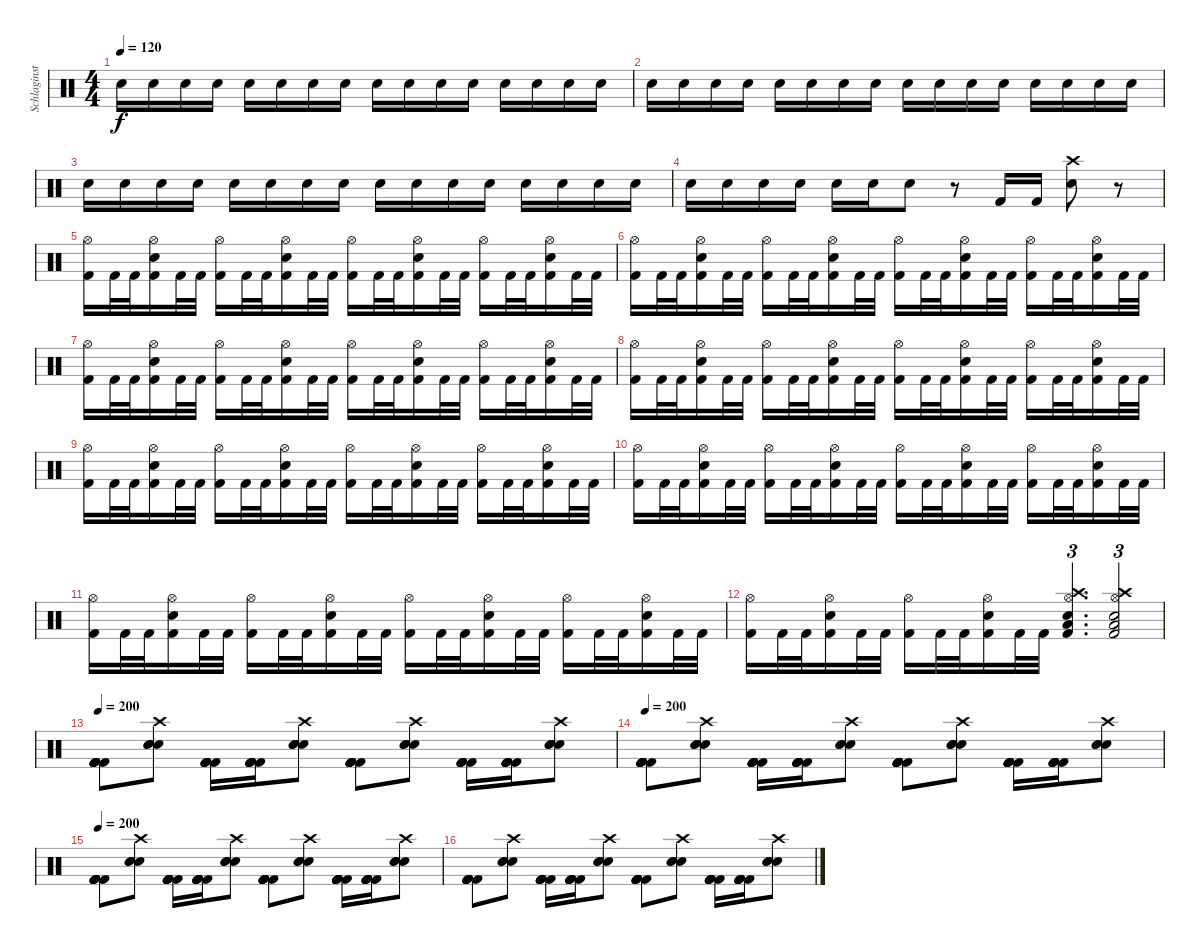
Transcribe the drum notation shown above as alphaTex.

\track ("Schlaginstrumente - Auswahl" "Schlaginst") {instrument percussion}
\staff {score}
\articulation defaults
\ts (4 4)
\tempo 120
\clef neutral
\ks c "Electric Snare (hit)".16{dy f} "Electric Snare (hit)".16 "Electric Snare (hit)".16 "Electric Snare (hit)".16 "Electric Snare (hit)".16 "Electric Snare (hit)".16 "Electric Snare (hit)".16 "Electric Snare (hit)".16 "Electric Snare (hit)".16 "Electric Snare (hit)".16 "Electric Snare (hit)".16 "Electric Snare (hit)".16 "Electric Snare (hit)".16 "Electric Snare (hit)".16 "Electric Snare (hit)".16 "Electric Snare (hit)".16
|
"Electric Snare (hit)".16 "Electric Snare (hit)".16 "Electric Snare (hit)".16 "Electric Snare (hit)".16 "Electric Snare (hit)".16 "Electric Snare (hit)".16 "Electric Snare (hit)".16 "Electric Snare (hit)".16 "Electric Snare (hit)".16 "Electric Snare (hit)".16 "Electric Snare (hit)".16 "Electric Snare (hit)".16 "Electric Snare (hit)".16 "Electric Snare (hit)".16 "Electric Snare (hit)".16 "Electric Snare (hit)".16 |
"Electric Snare (hit)".16 "Electric Snare (hit)".16 "Electric Snare (hit)".16 "Electric Snare (hit)".16 "Electric Snare (hit)".16 "Electric Snare (hit)".16 "Electric Snare (hit)".16 "Electric Snare (hit)".16 "Electric Snare (hit)".16 "Electric Snare (hit)".16 "Electric Snare (hit)".16 "Electric Snare (hit)".16 "Electric Snare (hit)".16 "Electric Snare (hit)".16 "Electric Snare (hit)".16 "Electric Snare (hit)".16 |
"Electric Snare (hit)".16 "Electric Snare (hit)".16 "Electric Snare (hit)".16 "Electric Snare (hit)".16 "Electric Snare (hit)".16 "Electric Snare (hit)".16 "Electric Snare (hit)".8 r.8 "Kick (hit) 2".16 "Kick (hit) 2".16 ("Crash high (hit)" "Electric Snare (hit)").8 r.8 |
("Hi-Hat (open)" "Kick (hit) 2").16 "Kick (hit) 2".32 "Kick (hit) 2".32 ("Hi-Hat (open)" "Electric Snare (hit)" "Kick (hit) 2").16 "Kick (hit) 2".32 "Kick (hit) 2".32 ("Hi-Hat (open)" "Kick (hit) 2").16 "Kick (hit) 2".32 "Kick (hit) 2".32 ("Hi-Hat (open)" "Electric Snare (hit)" "Kick (hit) 2").16 "Kick (hit) 2".32 "Kick (hit) 2".32 ("Hi-Hat (open)" "Kick (hit) 2").16 "Kick (hit) 2".32 "Kick (hit) 2".32 ("Hi-Hat (open)" "Electric Snare (hit)" "Kick (hit) 2").16 "Kick (hit) 2".32 "Kick (hit) 2".32 ("Hi-Hat (open)" "Kick (hit) 2").16 "Kick (hit) 2".32 "Kick (hit) 2".32 ("Hi-Hat (open)" "Electric Snare (hit)" "Kick (hit) 2").16 "Kick (hit) 2".32 "Kick (hit) 2".32 |
("Hi-Hat (open)" "Kick (hit) 2").16 "Kick (hit) 2".32 "Kick (hit) 2".32 ("Hi-Hat (open)" "Electric Snare (hit)" "Kick (hit) 2").16 "Kick (hit) 2".32 "Kick (hit) 2".32 ("Hi-Hat (open)" "Kick (hit) 2").16 "Kick (hit) 2".32 "Kick (hit) 2".32 ("Hi-Hat (open)" "Electric Snare (hit)" "Kick (hit) 2").16 "Kick (hit) 2".32 "Kick (hit) 2".32 ("Hi-Hat (open)" "Kick (hit) 2").16 "Kick (hit) 2".32 "Kick (hit) 2".32 ("Hi-Hat (open)" "Electric Snare (hit)" "Kick (hit) 2").16 "Kick (hit) 2".32 "Kick (hit) 2".32 ("Hi-Hat (open)" "Kick (hit) 2").16 "Kick (hit) 2".32 "Kick (hit) 2".32 ("Hi-Hat (open)" "Electric Snare (hit)" "Kick (hit) 2").16 "Kick (hit) 2".32 "Kick (hit) 2".32 |
("Hi-Hat (open)" "Kick (hit) 2").16 "Kick (hit) 2".32 "Kick (hit) 2".32 ("Hi-Hat (open)" "Electric Snare (hit)" "Kick (hit) 2").16 "Kick (hit) 2".32 "Kick (hit) 2".32 ("Hi-Hat (open)" "Kick (hit) 2").16 "Kick (hit) 2".32 "Kick (hit) 2".32 ("Hi-Hat (open)" "Electric Snare (hit)" "Kick (hit) 2").16 "Kick (hit) 2".32 "Kick (hit) 2".32 ("Hi-Hat (open)" "Kick (hit) 2").16 "Kick (hit) 2".32 "Kick (hit) 2".32 ("Hi-Hat (open)" "Electric Snare (hit)" "Kick (hit) 2").16 "Kick (hit) 2".32 "Kick (hit) 2".32 ("Hi-Hat (open)" "Kick (hit) 2").16 "Kick (hit) 2".32 "Kick (hit) 2".32 ("Hi-Hat (open)" "Electric Snare (hit)" "Kick (hit) 2").16 "Kick (hit) 2".32 "Kick (hit) 2".32 |
("Hi-Hat (open)" "Kick (hit) 2").16 "Kick (hit) 2".32 "Kick (hit) 2".32 ("Hi-Hat (open)" "Electric Snare (hit)" "Kick (hit) 2").16 "Kick (hit) 2".32 "Kick (hit) 2".32 ("Hi-Hat (open)" "Kick (hit) 2").16 "Kick (hit) 2".32 "Kick (hit) 2".32 ("Hi-Hat (open)" "Electric Snare (hit)" "Kick (hit) 2").16 "Kick (hit) 2".32 "Kick (hit) 2".32 ("Hi-Hat (open)" "Kick (hit) 2").16 "Kick (hit) 2".32 "Kick (hit) 2".32 ("Hi-Hat (open)" "Electric Snare (hit)" "Kick (hit) 2").16 "Kick (hit) 2".32 "Kick (hit) 2".32 ("Hi-Hat (open)" "Kick (hit) 2").16 "Kick (hit) 2".32 "Kick (hit) 2".32 ("Hi-Hat (open)" "Electric Snare (hit)" "Kick (hit) 2").16 "Kick (hit) 2".32 "Kick (hit) 2".32 |
("Hi-Hat (open)" "Kick (hit) 2").16 "Kick (hit) 2".32 "Kick (hit) 2".32 ("Hi-Hat (open)" "Electric Snare (hit)" "Kick (hit) 2").16 "Kick (hit) 2".32 "Kick (hit) 2".32 ("Hi-Hat (open)" "Kick (hit) 2").16 "Kick (hit) 2".32 "Kick (hit) 2".32 ("Hi-Hat (open)" "Electric Snare (hit)" "Kick (hit) 2").16 "Kick (hit) 2".32 "Kick (hit) 2".32 ("Hi-Hat (open)" "Kick (hit) 2").16 "Kick (hit) 2".32 "Kick (hit) 2".32 ("Hi-Hat (open)" "Electric Snare (hit)" "Kick (hit) 2").16 "Kick (hit) 2".32 "Kick (hit) 2".32 ("Hi-Hat (open)" "Kick (hit) 2").16 "Kick (hit) 2".32 "Kick (hit) 2".32 ("Hi-Hat (open)" "Electric Snare (hit)" "Kick (hit) 2").16 "Kick (hit) 2".32 "Kick (hit) 2".32 |
("Hi-Hat (open)" "Kick (hit) 2").16 "Kick (hit) 2".32 "Kick (hit) 2".32 ("Hi-Hat (open)" "Electric Snare (hit)" "Kick (hit) 2").16 "Kick (hit) 2".32 "Kick (hit) 2".32 ("Hi-Hat (open)" "Kick (hit) 2").16 "Kick (hit) 2".32 "Kick (hit) 2".32 ("Hi-Hat (open)" "Electric Snare (hit)" "Kick (hit) 2").16 "Kick (hit) 2".32 "Kick (hit) 2".32 ("Hi-Hat (open)" "Kick (hit) 2").16 "Kick (hit) 2".32 "Kick (hit) 2".32 ("Hi-Hat (open)" "Electric Snare (hit)" "Kick (hit) 2").16 "Kick (hit) 2".32 "Kick (hit) 2".32 ("Hi-Hat (open)" "Kick (hit) 2").16 "Kick (hit) 2".32 "Kick (hit) 2".32 ("Hi-Hat (open)" "Electric Snare (hit)" "Kick (hit) 2").16 "Kick (hit) 2".32 "Kick (hit) 2".32 |
("Hi-Hat (open)" "Kick (hit) 2").16 "Kick (hit) 2".32 "Kick (hit) 2".32 ("Hi-Hat (open)" "Electric Snare (hit)" "Kick (hit) 2").16 "Kick (hit) 2".32 "Kick (hit) 2".32 ("Hi-Hat (open)" "Kick (hit) 2").16 "Kick (hit) 2".32 "Kick (hit) 2".32 ("Hi-Hat (open)" "Electric Snare (hit)" "Kick (hit) 2").16 "Kick (hit) 2".32 "Kick (hit) 2".32 ("Hi-Hat (open)" "Kick (hit) 2").16 "Kick (hit) 2".32 "Kick (hit) 2".32 ("Hi-Hat (open)" "Electric Snare (hit)" "Kick (hit) 2").16 "Kick (hit) 2".32 "Kick (hit) 2".32 ("Hi-Hat (open)" "Kick (hit) 2").16 "Kick (hit) 2".32 "Kick (hit) 2".32 ("Hi-Hat (open)" "Electric Snare (hit)" "Kick (hit) 2").16 "Kick (hit) 2".32 "Kick (hit) 2".32 |
("Hi-Hat (open)" "Kick (hit) 2").16 "Kick (hit) 2".32 "Kick (hit) 2".32 ("Hi-Hat (open)" "Electric Snare (hit)" "Kick (hit) 2").16 "Kick (hit) 2".32 "Kick (hit) 2".32 ("Hi-Hat (open)" "Kick (hit) 2").16 "Kick (hit) 2".32 "Kick (hit) 2".32 ("Hi-Hat (open)" "Electric Snare (hit)" "Kick (hit) 2").16 "Kick (hit) 2".32 "Kick (hit) 2".32 ("Low Floor Tom (hit)" "Kick (hit) 2" "Snare (hit)" "Crash high (hit)" "Hi-Hat (open)").4{d tu (3 2)} ("Low Floor Tom (hit)" "Kick (hit) 2" "Snare (hit)" "Crash high (hit)" "Hi-Hat (open)").2{tu (3 2)} |
\tempo 200
("Kick (hit) 2" "Kick (hit) 2" "Kick (hit) 2" "Kick (hit) 2" "Kick (hit) 2" "Kick (hit) 2").8 ("Electric Snare (hit)" "Electric Snare (hit)" "Electric Snare (hit)" "Crash high (hit)").8 ("Kick (hit) 2" "Kick (hit) 2" "Kick (hit) 2" "Kick (hit) 2" "Kick (hit) 2" "Kick (hit) 2").16 ("Kick (hit) 2" "Kick (hit) 2" "Kick (hit) 2" "Kick (hit) 2" "Kick (hit) 2" "Kick (hit) 2").16 ("Electric Snare (hit)" "Electric Snare (hit)" "Electric Snare (hit)" "Crash high (hit)").8 ("Kick (hit) 2" "Kick (hit) 2" "Kick (hit) 2" "Kick (hit) 2" "Kick (hit) 2" "Kick (hit) 2").8 ("Electric Snare (hit)" "Electric Snare (hit)" "Electric Snare (hit)" "Crash high (hit)").8 ("Kick (hit) 2" "Kick (hit) 2" "Kick (hit) 2" "Kick (hit) 2" "Kick (hit) 2" "Kick (hit) 2").16 ("Kick (hit) 2" "Kick (hit) 2" "Kick (hit) 2" "Kick (hit) 2" "Kick (hit) 2" "Kick (hit) 2").16 ("Electric Snare (hit)" "Electric Snare (hit)" "Electric Snare (hit)" "Crash high (hit)").8 |
\tempo 200
("Kick (hit) 2" "Kick (hit) 2" "Kick (hit) 2" "Kick (hit) 2" "Kick (hit) 2" "Kick (hit) 2").8 ("Electric Snare (hit)" "Electric Snare (hit)" "Electric Snare (hit)" "Crash high (hit)").8 ("Kick (hit) 2" "Kick (hit) 2" "Kick (hit) 2" "Kick (hit) 2" "Kick (hit) 2" "Kick (hit) 2").16 ("Kick (hit) 2" "Kick (hit) 2" "Kick (hit) 2" "Kick (hit) 2" "Kick (hit) 2" "Kick (hit) 2").16 ("Electric Snare (hit)" "Electric Snare (hit)" "Electric Snare (hit)" "Crash high (hit)").8 ("Kick (hit) 2" "Kick (hit) 2" "Kick (hit) 2" "Kick (hit) 2" "Kick (hit) 2" "Kick (hit) 2").8 ("Electric Snare (hit)" "Electric Snare (hit)" "Electric Snare (hit)" "Crash high (hit)").8 ("Kick (hit) 2" "Kick (hit) 2" "Kick (hit) 2" "Kick (hit) 2" "Kick (hit) 2" "Kick (hit) 2").16 ("Kick (hit) 2" "Kick (hit) 2" "Kick (hit) 2" "Kick (hit) 2" "Kick (hit) 2" "Kick (hit) 2").16 ("Electric Snare (hit)" "Electric Snare (hit)" "Electric Snare (hit)" "Crash high (hit)").8 |
\tempo 200
("Kick (hit) 2" "Kick (hit) 2" "Kick (hit) 2" "Kick (hit) 2" "Kick (hit) 2" "Kick (hit) 2").8 ("Electric Snare (hit)" "Electric Snare (hit)" "Electric Snare (hit)" "Crash high (hit)").8 ("Kick (hit) 2" "Kick (hit) 2" "Kick (hit) 2" "Kick (hit) 2" "Kick (hit) 2" "Kick (hit) 2").16 ("Kick (hit) 2" "Kick (hit) 2" "Kick (hit) 2" "Kick (hit) 2" "Kick (hit) 2" "Kick (hit) 2").16 ("Electric Snare (hit)" "Electric Snare (hit)" "Electric Snare (hit)" "Crash high (hit)").8 ("Kick (hit) 2" "Kick (hit) 2" "Kick (hit) 2" "Kick (hit) 2" "Kick (hit) 2" "Kick (hit) 2").8 ("Electric Snare (hit)" "Electric Snare (hit)" "Electric Snare (hit)" "Crash high (hit)").8 ("Kick (hit) 2" "Kick (hit) 2" "Kick (hit) 2" "Kick (hit) 2" "Kick (hit) 2" "Kick (hit) 2").16 ("Kick (hit) 2" "Kick (hit) 2" "Kick (hit) 2" "Kick (hit) 2" "Kick (hit) 2" "Kick (hit) 2").16 ("Electric Snare (hit)" "Electric Snare (hit)" "Electric Snare (hit)" "Crash high (hit)").8 |
("Kick (hit) 2" "Kick (hit) 2" "Kick (hit) 2" "Kick (hit) 2" "Kick (hit) 2" "Kick (hit) 2").8 ("Electric Snare (hit)" "Electric Snare (hit)" "Electric Snare (hit)" "Crash high (hit)").8 ("Kick (hit) 2" "Kick (hit) 2" "Kick (hit) 2" "Kick (hit) 2" "Kick (hit) 2" "Kick (hit) 2").16 ("Kick (hit) 2" "Kick (hit) 2" "Kick (hit) 2" "Kick (hit) 2" "Kick (hit) 2" "Kick (hit) 2").16 ("Electric Snare (hit)" "Electric Snare (hit)" "Electric Snare (hit)" "Crash high (hit)").8 ("Kick (hit) 2" "Kick (hit) 2" "Kick (hit) 2" "Kick (hit) 2" "Kick (hit) 2" "Kick (hit) 2").8 ("Electric Snare (hit)" "Electric Snare (hit)" "Electric Snare (hit)" "Crash high (hit)").8 ("Kick (hit) 2" "Kick (hit) 2" "Kick (hit) 2" "Kick (hit) 2" "Kick (hit) 2" "Kick (hit) 2").16 ("Kick (hit) 2" "Kick (hit) 2" "Kick (hit) 2" "Kick (hit) 2" "Kick (hit) 2" "Kick (hit) 2").16 ("Electric Snare (hit)" "Electric Snare (hit)" "Electric Snare (hit)" "Crash high (hit)").8
